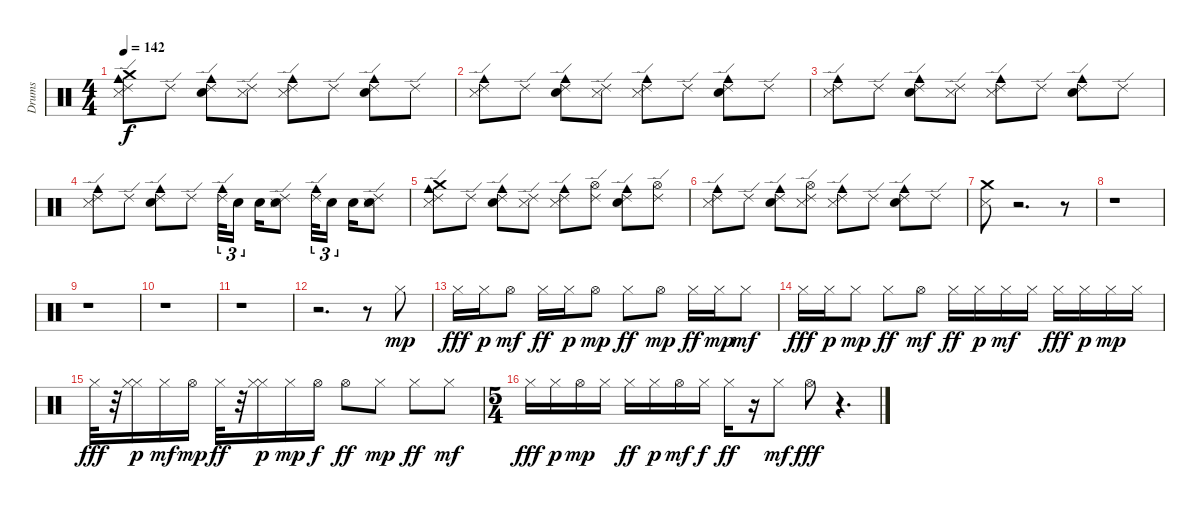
\track ("Drums" "Drums") {instrument percussion}
\staff {score}
\articulation defaults
\ts (4 4)
\tempo 142
\clef neutral
\ks c
("Crash medium (hit)" "Cowbell medium (hit)" "Ride (edge) 2" "Metronome (hit)").8{dy f} "Ride (edge) 2".8 ("Cowbell medium (hit)" "Ride (edge) 2" "Snare (hit) 2").8 ("Ride (edge) 2" "Metronome (hit)").8 ("Cowbell medium (hit)" "Ride (edge) 2" "Metronome (hit)").8 "Ride (edge) 2".8 ("Cowbell medium (hit)" "Ride (edge) 2" "Snare (hit) 2").8 "Ride (edge) 2".8 |
("Cowbell medium (hit)" "Ride (edge) 2" "Metronome (hit)").8 "Ride (edge) 2".8 ("Cowbell medium (hit)" "Ride (edge) 2" "Snare (hit) 2").8 ("Ride (edge) 2" "Metronome (hit)").8 ("Cowbell medium (hit)" "Ride (edge) 2" "Metronome (hit)").8 "Ride (edge) 2".8 ("Cowbell medium (hit)" "Ride (edge) 2" "Snare (hit) 2").8 "Ride (edge) 2".8 |
("Cowbell medium (hit)" "Ride (edge) 2" "Metronome (hit)").8 "Ride (edge) 2".8 ("Cowbell medium (hit)" "Ride (edge) 2" "Snare (hit) 2").8 ("Ride (edge) 2" "Metronome (hit)").8 ("Cowbell medium (hit)" "Ride (edge) 2" "Metronome (hit)").8 "Ride (edge) 2".8 ("Cowbell medium (hit)" "Ride (edge) 2" "Snare (hit) 2").8 "Ride (edge) 2".8 |
("Cowbell medium (hit)" "Ride (edge) 2" "Metronome (hit)").8 "Ride (edge) 2".8 ("Cowbell medium (hit)" "Ride (edge) 2" "Snare (hit) 2").8 "Ride (edge) 2".8 ("Cowbell medium (hit)" "Ride (edge) 2").32{tu (3 2)} "Snare (hit) 2".16{tu (3 2)} "Snare (hit) 2".16 ("Metronome (hit)" "Snare (hit) 2" "Ride (edge) 2").8 ("Cowbell medium (hit)" "Ride (edge) 2").32{tu (3 2)} "Snare (hit) 2".16{tu (3 2)} "Snare (hit) 2".16 ("Metronome (hit)" "Snare (hit) 2" "Ride (edge) 2").8 |
("Crash medium (hit)" "Cowbell medium (hit)" "Ride (edge) 2" "Metronome (hit)").8 "Ride (edge) 2".8 ("Cowbell medium (hit)" "Ride (edge) 2" "Snare (hit) 2").8 ("Ride (edge) 2" "Metronome (hit)").8 ("Cowbell medium (hit)" "Ride (edge) 2" "Metronome (hit)").8 ("Hi-Hat (open)" "Ride (edge) 2").8 ("Cowbell medium (hit)" "Ride (edge) 2" "Snare (hit) 2").8 ("Hi-Hat (open)" "Ride (edge) 2").8 |
("Cowbell medium (hit)" "Ride (edge) 2" "Metronome (hit)").8 "Ride (edge) 2".8 ("Cowbell medium (hit)" "Ride (edge) 2" "Snare (hit) 2").8 ("Hi-Hat (open)" "Ride (edge) 2" "Metronome (hit)").8 ("Cowbell medium (hit)" "Ride (edge) 2" "Metronome (hit)").8 "Ride (edge) 2".8 ("Cowbell medium (hit)" "Ride (edge) 2" "Snare (hit) 2").8 "Ride (edge) 2".8 |
("Metronome (hit)" "Crash medium (hit)").8 r.2{d} r.8 |
r.1 |
r.1 |
r.1 |
r.1 |
r.2{d} r.8 "Hi-Hat (closed)".8{dy mp} |
"Hi-Hat (closed)".16{dy fff} "Hi-Hat (closed)".16{dy p} "Hi-Hat (open)".8{dy mf} "Hi-Hat (closed)".16{dy ff} "Hi-Hat (closed)".16{dy p} "Hi-Hat (open)".8{dy mp} "Hi-Hat (closed)".8{dy ff} "Hi-Hat (open)".8{dy mp} "Hi-Hat (closed)".16{dy ff} "Hi-Hat (closed)".16{dy mp} "Hi-Hat (closed)".8{dy mf} |
"Hi-Hat (closed)".16{dy fff} "Hi-Hat (closed)".16{dy p} "Hi-Hat (closed)".8{dy mp} "Hi-Hat (closed)".8{dy ff} "Hi-Hat (open)".8{dy mf} "Hi-Hat (closed)".16{dy ff} "Hi-Hat (closed)".16{dy p} "Hi-Hat (closed)".16{dy mf} "Hi-Hat (closed)".16 "Hi-Hat (closed)".16{dy fff} "Hi-Hat (closed)".16{dy p} "Hi-Hat (closed)".16{dy mp} "Hi-Hat (closed)".16 |
"Hi-Hat (closed)".32{dy fff} r.32 ("Hi-Hat (closed)" "Hi-Hat (closed)").16{dy p} "Hi-Hat (closed)".16{dy mf} "Hi-Hat (open)".16{dy mp} "Hi-Hat (closed)".32{dy ff} r.32 ("Hi-Hat (closed)" "Hi-Hat (closed)").16{dy p} "Hi-Hat (closed)".16{dy mp} "Hi-Hat (open)".16{dy f} "Hi-Hat (open)".8{dy ff} "Hi-Hat (closed)".8{dy mp} "Hi-Hat (closed)".8{dy ff} "Hi-Hat (closed)".8{dy mf} |
\ts (5 4)
"Hi-Hat (closed)".16{dy fff} "Hi-Hat (closed)".16{dy p} "Hi-Hat (open)".16{dy mp} "Hi-Hat (closed)".16 "Hi-Hat (closed)".16{dy ff} "Hi-Hat (closed)".16{dy p} "Hi-Hat (open)".16{dy mf} "Hi-Hat (closed)".16{dy f} "Hi-Hat (closed)".16{dy ff} r.16 "Hi-Hat (closed)".8{dy mf} "Hi-Hat (open)".8{dy fff} r.4{d}
